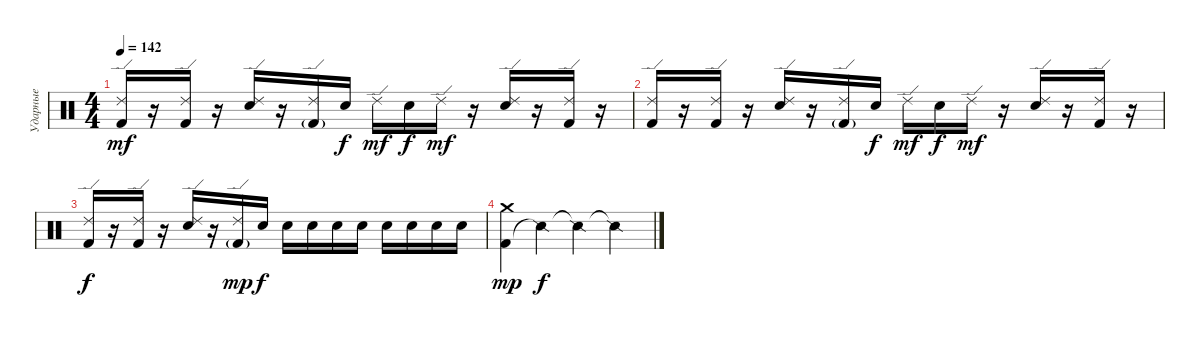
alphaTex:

\track ("Ударные" "Ударные") {instrument percussion}
\staff {score}
\articulation defaults
\ts (4 4)
\tempo 142
\clef neutral
\ks c
("Kick (hit) 2" "Ride (edge) 2").16{dy mf} r.16 ("Kick (hit) 2" "Ride (edge) 2").16 r.16 ("Electric Snare (hit)" "Ride (edge) 2").16 r.16 ("Kick (hit) 2"{g} "Ride (edge) 2").16 "Electric Snare (hit)".16{dy f} "Ride (edge) 2".16{dy mf} "Electric Snare (hit)".16{dy f} "Ride (edge) 2".16{dy mf} r.16 ("Electric Snare (hit)" "Ride (edge) 2").16 r.16 ("Kick (hit) 2" "Ride (edge) 2").16 r.16 |
("Kick (hit) 2" "Ride (edge) 2").16 r.16 ("Kick (hit) 2" "Ride (edge) 2").16 r.16 ("Electric Snare (hit)" "Ride (edge) 2").16 r.16 ("Kick (hit) 2"{g} "Ride (edge) 2").16 "Electric Snare (hit)".16{dy f} "Ride (edge) 2".16{dy mf} "Electric Snare (hit)".16{dy f} "Ride (edge) 2".16{dy mf} r.16 ("Electric Snare (hit)" "Ride (edge) 2").16 r.16 ("Kick (hit) 2" "Ride (edge) 2").16 r.16 |
("Kick (hit) 2" "Ride (edge) 2").16{dy f} r.16 ("Kick (hit) 2" "Ride (edge) 2").16 r.16 ("Electric Snare (hit)" "Ride (edge) 2").16 r.16 ("Kick (hit) 2"{g} "Ride (edge) 2").16{dy mp} "Electric Snare (hit)".16{dy f} "Electric Snare (hit)".16 "Electric Snare (hit)".16 "Electric Snare (hit)".16 "Electric Snare (hit)".16 "Electric Snare (hit)".16 "Electric Snare (hit)".16 "Electric Snare (hit)".16 "Electric Snare (hit)".16 |
("Kick (hit) 2" "Crash medium (hit)").4{dy mp} "Snare (side stick) 2"{t}.4{dy f} "Snare (side stick) 2"{t}.4 "Snare (side stick) 2"{t}.4
